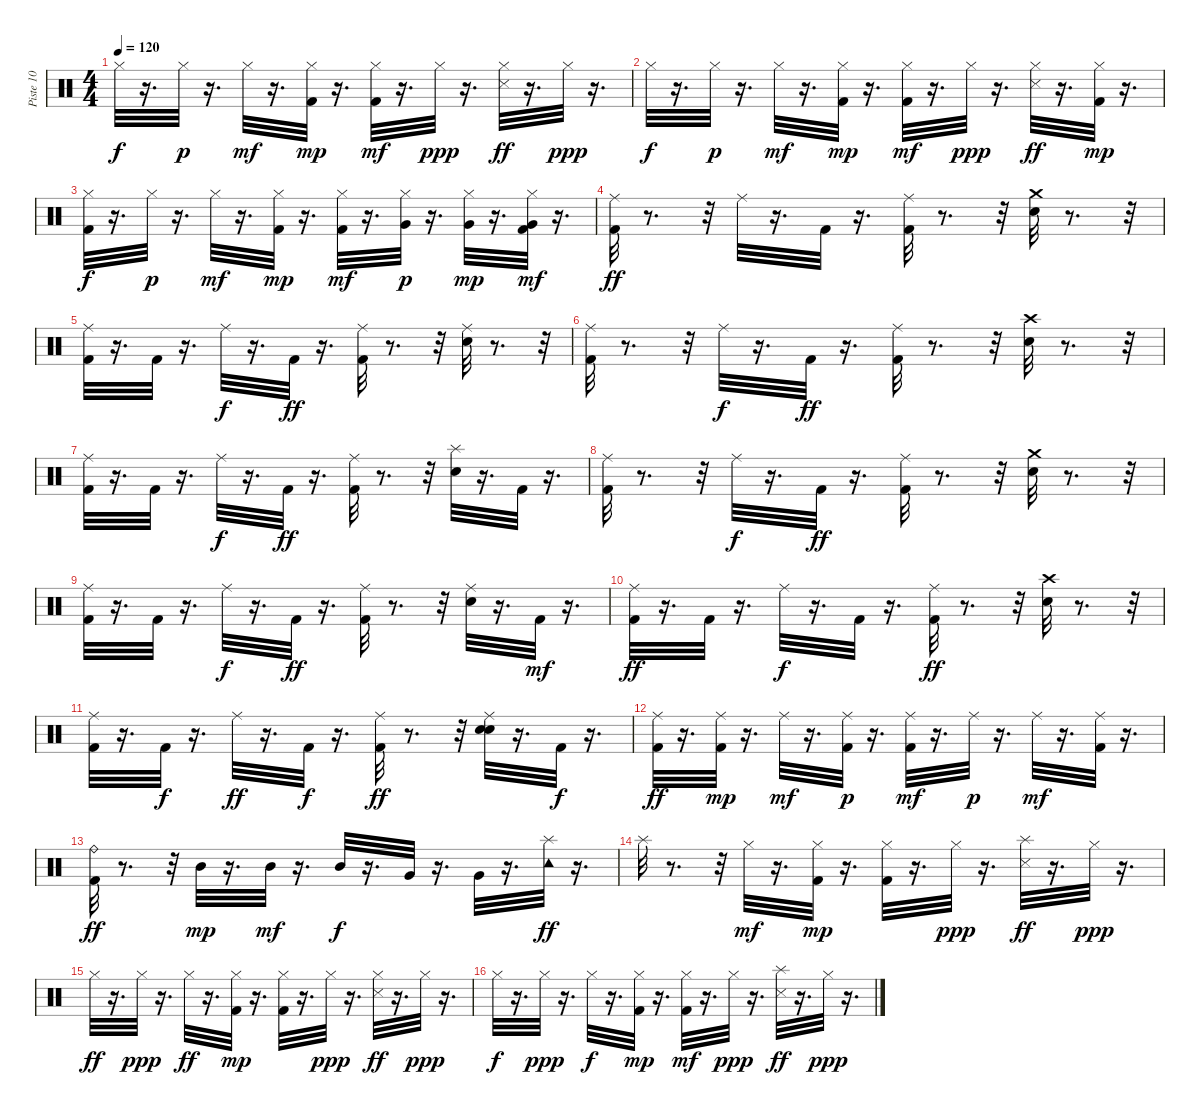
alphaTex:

\track ("Piste 10" "Piste 10") {instrument percussion}
\staff {score}
\articulation defaults
\ts (4 4)
\tempo 120
\clef neutral
\ks c "Hi-Hat (closed)".32{dy f}
r.16{d} "Hi-Hat (closed)".32{dy p} r.16{d} "Hi-Hat (closed)".32{dy mf} r.16{d} ("Hi-Hat (closed)" "Kick (hit) 2").32{dy mp} r.16{d} ("Hi-Hat (closed)" "Kick (hit) 2").32{dy mf} r.16{d} "Hi-Hat (closed)".32{dy ppp} r.16{d} ("Hi-Hat (closed)" "Snare (side stick) 3").32{dy ff} r.16{d} "Hi-Hat (closed)".32{dy ppp} r.16{d} |
"Hi-Hat (closed)".32{dy f} r.16{d} "Hi-Hat (closed)".32{dy p} r.16{d} "Hi-Hat (closed)".32{dy mf} r.16{d} ("Hi-Hat (closed)" "Kick (hit) 2").32{dy mp} r.16{d} ("Hi-Hat (closed)" "Kick (hit) 2").32{dy mf} r.16{d} "Hi-Hat (closed)".32{dy ppp} r.16{d} ("Hi-Hat (closed)" "Snare (side stick) 3").32{dy ff} r.16{d} ("Hi-Hat (closed)" "Kick (hit) 2").32{dy mp} r.16{d} |
("Hi-Hat (closed)" "Kick (hit) 2").32{dy f} r.16{d} "Hi-Hat (closed)".32{dy p} r.16{d} "Hi-Hat (closed)".32{dy mf} r.16{d} ("Hi-Hat (closed)" "Kick (hit) 2").32{dy mp} r.16{d} ("Hi-Hat (closed)" "Kick (hit) 2").32{dy mf} r.16{d} ("Hi-Hat (closed)" "Very Low Tom (hit)").32{dy p} r.16{d} ("Hi-Hat (closed)" "Very Low Tom (hit)").32{dy mp} r.16{d} ("Hi-Hat (closed)" "Kick (hit) 2" "Very Low Tom (hit)").32{dy mf} r.16{d} |
("Ride (middle)" "Kick (hit) 2").32{dy ff} r.8{d} r.32 "Ride (middle)".32 r.16{d} "Kick (hit) 2".32 r.16{d} ("Ride (middle)" "Kick (hit) 2").32 r.8{d} r.32 ("Electric Snare (hit)" "Crash medium (hit)").32 r.8{d} r.32 |
("Ride (middle)" "Kick (hit) 2").32 r.16{d} "Kick (hit) 2".32 r.16{d} "Ride (middle)".32{dy f} r.16{d} "Kick (hit) 2".32{dy ff} r.16{d} ("Ride (middle)" "Kick (hit) 2").32 r.8{d} r.32 ("Electric Snare (hit)" "Ride (middle)").32 r.8{d} r.32 |
("Ride (middle)" "Kick (hit) 2").32 r.8{d} r.32 "Ride (middle)".32{dy f} r.16{d} "Kick (hit) 2".32{dy ff} r.16{d} ("Ride (middle)" "Kick (hit) 2").32 r.8{d} r.32 ("Electric Snare (hit)" "Crash high (hit)").32 r.8{d} r.32 |
("Ride (middle)" "Kick (hit) 2").32 r.16{d} "Kick (hit) 2".32 r.16{d} "Ride (middle)".32{dy f} r.16{d} "Kick (hit) 2".32{dy ff} r.16{d} ("Ride (middle)" "Kick (hit) 2").32 r.8{d} r.32 ("Electric Snare (hit)" "Splash (hit)").32 r.16{d} "Kick (hit) 2".32 r.16{d} |
("Ride (middle)" "Kick (hit) 2").32 r.8{d} r.32 "Ride (middle)".32{dy f} r.16{d} "Kick (hit) 2".32{dy ff} r.16{d} ("Ride (middle)" "Kick (hit) 2").32 r.8{d} r.32 ("Crash medium (hit)" "Electric Snare (hit)").32 r.8{d} r.32 |
("Ride (middle)" "Kick (hit) 2").32 r.16{d} "Kick (hit) 2".32 r.16{d} "Ride (middle)".32{dy f} r.16{d} "Kick (hit) 2".32{dy ff} r.16{d} ("Ride (middle)" "Kick (hit) 2").32 r.8{d} r.32 ("Ride (middle)" "Electric Snare (hit)").32 r.16{d} "Kick (hit) 2".32{dy mf} r.16{d} |
("Ride (middle)" "Kick (hit) 2").32{dy ff} r.16{d} "Kick (hit) 2".32 r.16{d} "Ride (middle)".32{dy f} r.16{d} "Kick (hit) 2".32 r.16{d} ("Ride (middle)" "Kick (hit) 2").32{dy ff} r.8{d} r.32 ("Crash high (hit)" "Electric Snare (hit)").32 r.8{d} r.32 |
("Ride (middle)" "Kick (hit) 2").32 r.16{d} "Kick (hit) 2".32{dy f} r.16{d} "Ride (middle)".32{dy ff} r.16{d} "Kick (hit) 2".32{dy f} r.16{d} ("Ride (middle)" "Kick (hit) 2").32{dy ff} r.8{d} r.32 ("Electric Snare (hit)" "Ride (middle)" "Electric Snare (hit)").32 r.16{d} "Kick (hit) 2".32{dy f} r.16{d} |
("Ride (middle)" "Kick (hit) 2").32{dy ff} r.16{d} ("Ride (middle)" "Kick (hit) 2").32{dy mp} r.16{d} "Ride (middle)".32{dy mf} r.16{d} ("Kick (hit) 2" "Ride (middle)").32{dy p} r.16{d} ("Kick (hit) 2" "Ride (middle)").32{dy mf} r.16{d} "Ride (middle)".32{dy p} r.16{d} "Ride (middle)".32{dy mf} r.16{d} ("Kick (hit) 2" "Ride (middle)").32 r.16{d} |
("Ride (bell)" "Kick (hit) 2").32{dy ff} r.8{d} r.32 "Mid Tom (hit)".32{dy mp} r.16{d} "Mid Tom (hit)".32{dy mf} r.16{d} "Mid Tom (hit)".32{dy f} r.16{d} "Very Low Tom (hit)".32 r.16{d} "Very Low Tom (hit)".32 r.16{d} ("Tambourine (hit)" "Splash (hit)").32{dy ff} r.16{d} |
"Splash (hit)".32 r.8{d} r.32 "Hi-Hat (closed)".32{dy mf} r.16{d} ("Hi-Hat (closed)" "Kick (hit) 2").32{dy mp} r.16{d} ("Hi-Hat (closed)" "Kick (hit) 2").32 r.16{d} "Hi-Hat (closed)".32{dy ppp} r.16{d} ("Splash (hit)" "Snare (side stick) 3").32{dy ff} r.16{d} "Hi-Hat (closed)".32{dy ppp} r.16{d} |
"Hi-Hat (closed)".32{dy ff} r.16{d} "Hi-Hat (closed)".32{dy ppp} r.16{d} "Hi-Hat (closed)".32{dy ff} r.16{d} ("Hi-Hat (closed)" "Kick (hit) 2").32{dy mp} r.16{d} ("Hi-Hat (closed)" "Kick (hit) 2").32 r.16{d} "Hi-Hat (closed)".32{dy ppp} r.16{d} ("Hi-Hat (closed)" "Snare (side stick) 3").32{dy ff} r.16{d} "Hi-Hat (closed)".32{dy ppp} r.16{d} |
"Hi-Hat (closed)".32{dy f} r.16{d} "Hi-Hat (closed)".32{dy ppp} r.16{d} "Hi-Hat (closed)".32{dy f} r.16{d} ("Hi-Hat (closed)" "Kick (hit) 2").32{dy mp} r.16{d} ("Hi-Hat (closed)" "Kick (hit) 2").32{dy mf} r.16{d} "Hi-Hat (closed)".32{dy ppp} r.16{d} ("Splash (hit)" "Snare (side stick) 3").32{dy ff} r.16{d} "Hi-Hat (closed)".32{dy ppp} r.16{d}
